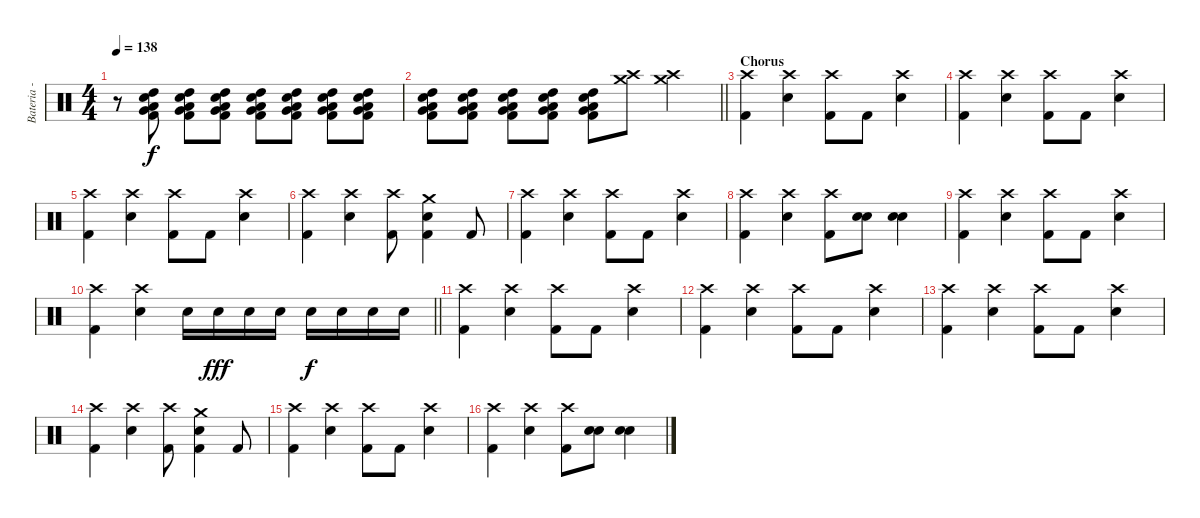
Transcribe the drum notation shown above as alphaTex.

\track ("Bateria - Larzon" "Bateria - ") {instrument percussion}
\staff {score}
\articulation defaults
\ts (4 4)
\tempo 138
\clef neutral
\ks c
r.8{dy fff} ("Electric Snare (hit)" "Very Low Tom (hit)" "Kick (hit) 2" "Low Floor Tom (hit)" "High Tom (hit)").8{dy f volume 11} ("Electric Snare (hit)" "Very Low Tom (hit)" "Kick (hit) 2" "Low Floor Tom (hit)" "High Tom (hit)").8 ("Electric Snare (hit)" "Very Low Tom (hit)" "Kick (hit) 2" "Low Floor Tom (hit)" "High Tom (hit)").8{volume 12} ("Electric Snare (hit)" "Very Low Tom (hit)" "Kick (hit) 2" "Low Floor Tom (hit)" "High Tom (hit)").8 ("Electric Snare (hit)" "Very Low Tom (hit)" "Kick (hit) 2" "Low Floor Tom (hit)" "High Tom (hit)").8{volume 13} ("Electric Snare (hit)" "Very Low Tom (hit)" "Kick (hit) 2" "Low Floor Tom (hit)" "High Tom (hit)").8 ("Electric Snare (hit)" "Very Low Tom (hit)" "Kick (hit) 2" "Low Floor Tom (hit)" "High Tom (hit)").8{volume 14} |
\barLineRight lightlight
("Electric Snare (hit)" "Very Low Tom (hit)" "Kick (hit) 2" "Low Floor Tom (hit)" "High Tom (hit)").8 ("Electric Snare (hit)" "Very Low Tom (hit)" "Kick (hit) 2" "Low Floor Tom (hit)" "High Tom (hit)").8{volume 15} ("Electric Snare (hit)" "Very Low Tom (hit)" "Kick (hit) 2" "Low Floor Tom (hit)" "High Tom (hit)").8 ("Electric Snare (hit)" "Very Low Tom (hit)" "Kick (hit) 2" "Low Floor Tom (hit)" "High Tom (hit)").8{volume 16} ("Electric Snare (hit)" "Very Low Tom (hit)" "Kick (hit) 2" "Low Floor Tom (hit)" "High Tom (hit)").8 ("Crash high (hit)" "Crash medium (hit)").8 ("Crash high (hit)" "Crash medium (hit)").4 |
\section ("" "Chorus")
("Kick (hit) 2" "Crash high (hit)").4 ("Electric Snare (hit)" "Crash high (hit)").4 ("Kick (hit) 2" "Crash high (hit)").8 "Kick (hit) 2".8 ("Electric Snare (hit)" "Crash high (hit)").4 |
("Kick (hit) 2" "Crash high (hit)").4 ("Electric Snare (hit)" "Crash high (hit)").4 ("Kick (hit) 2" "Crash high (hit)").8 "Kick (hit) 2".8 ("Electric Snare (hit)" "Crash high (hit)").4 |
("Kick (hit) 2" "Crash high (hit)").4 ("Electric Snare (hit)" "Crash high (hit)").4 ("Kick (hit) 2" "Crash high (hit)").8 "Kick (hit) 2".8 ("Electric Snare (hit)" "Crash high (hit)").4 |
("Kick (hit) 2" "Crash high (hit)").4 ("Electric Snare (hit)" "Crash high (hit)").4 ("Kick (hit) 2" "Crash high (hit)").8 ("Electric Snare (hit)" "Crash medium (hit)" "Kick (hit) 2").4 "Kick (hit) 2".8 |
("Kick (hit) 2" "Crash high (hit)").4 ("Electric Snare (hit)" "Crash high (hit)").4 ("Kick (hit) 2" "Crash high (hit)").8 "Kick (hit) 2".8 ("Electric Snare (hit)" "Crash high (hit)").4 |
("Kick (hit) 2" "Crash high (hit)").4 ("Electric Snare (hit)" "Crash high (hit)").4 ("Kick (hit) 2" "Crash high (hit)").8 ("Electric Snare (hit)" "Electric Snare (hit)").8 ("Electric Snare (hit)" "Electric Snare (hit)").4 |
("Kick (hit) 2" "Crash high (hit)").4 ("Electric Snare (hit)" "Crash high (hit)").4 ("Kick (hit) 2" "Crash high (hit)").8 "Kick (hit) 2".8 ("Electric Snare (hit)" "Crash high (hit)").4 |
\barLineRight lightlight
("Kick (hit) 2" "Crash high (hit)").4 ("Electric Snare (hit)" "Crash high (hit)").4 "Electric Snare (hit)".16 "Electric Snare (hit)".16{dy fff} "Electric Snare (hit)".16 "Electric Snare (hit)".16 "Electric Snare (hit)".16{dy f} "Electric Snare (hit)".16 "Electric Snare (hit)".16 "Electric Snare (hit)".16 |
("Kick (hit) 2" "Crash high (hit)").4 ("Electric Snare (hit)" "Crash high (hit)").4 ("Kick (hit) 2" "Crash high (hit)").8 "Kick (hit) 2".8 ("Electric Snare (hit)" "Crash high (hit)").4 |
("Kick (hit) 2" "Crash high (hit)").4 ("Electric Snare (hit)" "Crash high (hit)").4 ("Kick (hit) 2" "Crash high (hit)").8 "Kick (hit) 2".8 ("Electric Snare (hit)" "Crash high (hit)").4 |
("Kick (hit) 2" "Crash high (hit)").4 ("Electric Snare (hit)" "Crash high (hit)").4 ("Kick (hit) 2" "Crash high (hit)").8 "Kick (hit) 2".8 ("Electric Snare (hit)" "Crash high (hit)").4 |
("Kick (hit) 2" "Crash high (hit)").4 ("Electric Snare (hit)" "Crash high (hit)").4 ("Kick (hit) 2" "Crash high (hit)").8 ("Electric Snare (hit)" "Crash medium (hit)" "Kick (hit) 2").4 "Kick (hit) 2".8 |
("Kick (hit) 2" "Crash high (hit)").4 ("Electric Snare (hit)" "Crash high (hit)").4 ("Kick (hit) 2" "Crash high (hit)").8 "Kick (hit) 2".8 ("Electric Snare (hit)" "Crash high (hit)").4 |
("Kick (hit) 2" "Crash high (hit)").4 ("Electric Snare (hit)" "Crash high (hit)").4 ("Kick (hit) 2" "Crash high (hit)").8 ("Electric Snare (hit)" "Electric Snare (hit)").8 ("Electric Snare (hit)" "Electric Snare (hit)").4
